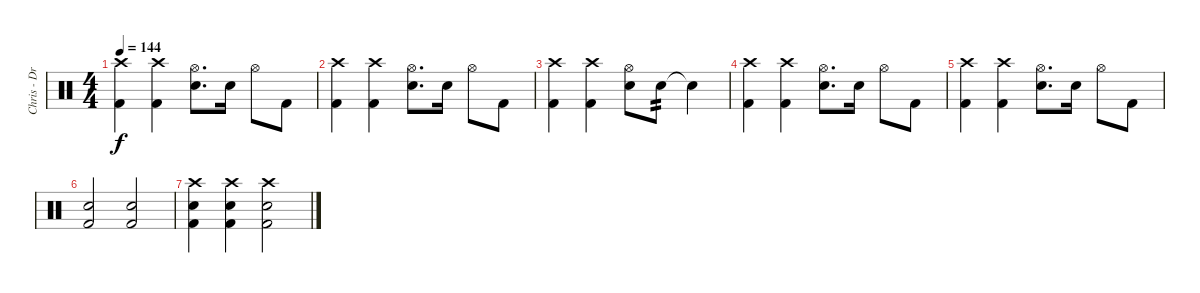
\track ("Chris - Drums" "Chris - Dr") {instrument percussion}
\staff {score}
\articulation defaults
\ts (4 4)
\tempo 144
\clef neutral
\ks c
("Crash high (hit)" "Kick (hit) 2").4{dy f} ("Crash high (hit)" "Kick (hit) 2").4 ("Hi-Hat (open)" "Electric Snare (hit)").8{d} "Electric Snare (hit)".16 "Hi-Hat (open)".8 "Kick (hit) 2".8 |
("Crash high (hit)" "Kick (hit) 2").4 ("Crash high (hit)" "Kick (hit) 2").4 ("Hi-Hat (open)" "Electric Snare (hit)").8{d} "Electric Snare (hit)".16 "Hi-Hat (open)".8 "Kick (hit) 2".8 |
("Crash high (hit)" "Kick (hit) 2").4 ("Crash high (hit)" "Kick (hit) 2").4 ("Hi-Hat (open)" "Electric Snare (hit)").8 "Electric Snare (hit)".8{tp 2} "Snare (hit)"{t}.4 |
("Crash high (hit)" "Kick (hit) 2").4 ("Crash high (hit)" "Kick (hit) 2").4 ("Hi-Hat (open)" "Electric Snare (hit)").8{d} "Electric Snare (hit)".16 "Hi-Hat (open)".8 "Kick (hit) 2".8 |
("Crash high (hit)" "Kick (hit) 2").4 ("Crash high (hit)" "Kick (hit) 2").4 ("Hi-Hat (open)" "Electric Snare (hit)").8{d} "Electric Snare (hit)".16 "Hi-Hat (open)".8 "Kick (hit) 2".8 |
("Electric Snare (hit)" "Kick (hit) 2").2 ("Electric Snare (hit)" "Kick (hit) 2").2 |
("Crash high (hit)" "Electric Snare (hit)" "Kick (hit) 2").4 ("Crash high (hit)" "Electric Snare (hit)" "Kick (hit) 2").4 ("Crash high (hit)" "Electric Snare (hit)" "Kick (hit) 2").2
